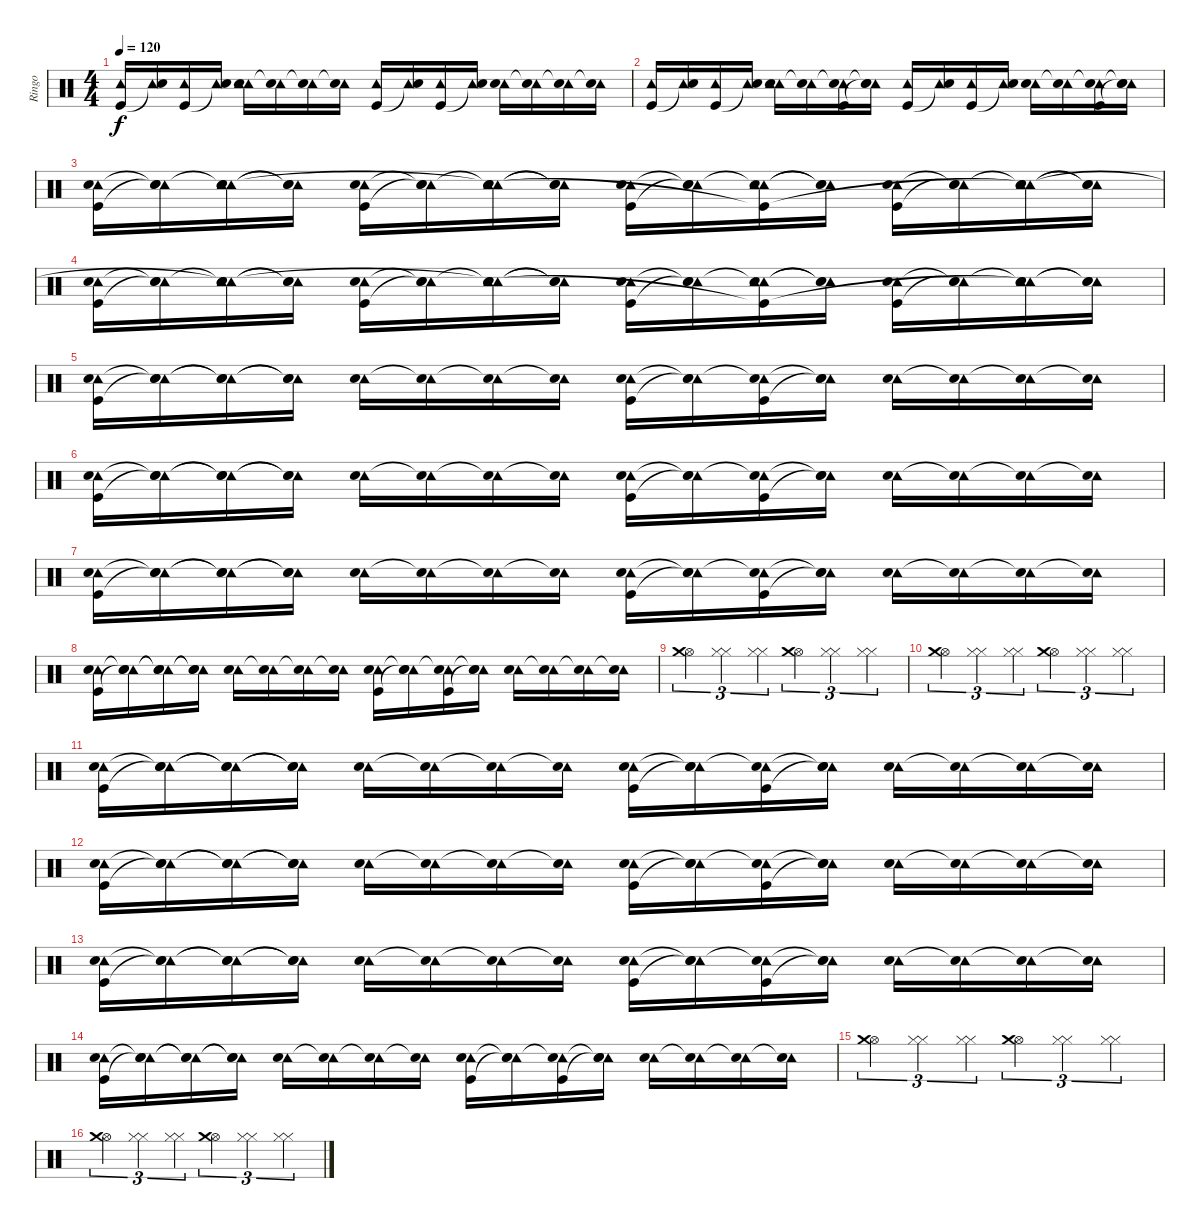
\track ("Ringo" "Ringo") {instrument percussion}
\staff {score}
\articulation defaults
\ts (4 4)
\tempo 120
\clef neutral
\ks c
("Tambourine (hit)" "Kick (hit)").16{dy f} ("Tambourine (hit)" "Snare (hit)"{t}).16 ("Tambourine (hit)" "Kick (hit)").16 ("Tambourine (hit)" "Snare (hit)"{t}).16 ("Tambourine (hit)" "Tambourine (hit)" "Snare (hit) 2").16 ("Tambourine (hit)" "Snare (hit)"{t}).16 ("Tambourine (hit)" "Snare (hit)"{t}).16 ("Tambourine (hit)" "Snare (hit)"{t}).16 ("Tambourine (hit)" "Kick (hit)").16 ("Tambourine (hit)" "Snare (hit)"{t}).16 ("Tambourine (hit)" "Kick (hit)").16 ("Tambourine (hit)" "Snare (hit)"{t}).16 ("Tambourine (hit)" "Snare (hit) 2").16 ("Tambourine (hit)" "Snare (hit)"{t}).16 ("Tambourine (hit)" "Snare (hit)"{t}).16 ("Tambourine (hit)" "Snare (hit)"{t}).16 |
("Tambourine (hit)" "Kick (hit)").16 ("Tambourine (hit)" "Snare (hit)"{t}).16 ("Tambourine (hit)" "Kick (hit)").16 ("Tambourine (hit)" "Snare (hit)"{t}).16 ("Tambourine (hit)" "Tambourine (hit)" "Snare (hit) 2").16 ("Tambourine (hit)" "Snare (hit)"{t}).16 ("Tambourine (hit)" "Snare (hit)"{t} "Kick (hit)").16 ("Tambourine (hit)" "Snare (hit)"{t} "Snare (hit)"{t}).16 ("Tambourine (hit)" "Kick (hit)").16 ("Tambourine (hit)" "Snare (hit)"{t}).16 ("Tambourine (hit)" "Kick (hit)").16 ("Tambourine (hit)" "Snare (hit)"{t}).16 ("Tambourine (hit)" "Snare (hit) 2").16 ("Tambourine (hit)" "Snare (hit)"{t}).16 ("Tambourine (hit)" "Snare (hit)"{t} "Kick (hit)").16 ("Tambourine (hit)" "Snare (hit)"{t} "Snare (hit)"{t}).16 |
("Tambourine (hit)" "Snare (hit) 2" "Kick (hit)").16 ("Tambourine (hit)" "Snare (hit)"{t} "Snare (hit)"{t}).16 ("Tambourine (hit)" "Tambourine (hit)" "Snare (hit)"{t} "Snare (hit)").16 ("Tambourine (hit)" "Snare (hit)"{t} "Snare (hit)"{t}).16 ("Tambourine (hit)" "Snare (hit) 2" "Kick (hit)").16 ("Tambourine (hit)" "Snare (hit)"{t} "Snare (hit)"{t}).16 ("Tambourine (hit)" "Tambourine (hit)" "Snare (hit)"{t} "Snare (hit)"{t}).16 ("Tambourine (hit)" "Snare (hit)"{t} "Snare (hit)"{t}).16 ("Tambourine (hit)" "Snare (hit) 2" "Kick (hit)").16 ("Tambourine (hit)" "Snare (hit)"{t} "Snare (hit)"{t}).16 ("Tambourine (hit)" "Tambourine (hit)" "Snare (hit)"{t} "Kick (hit)"{t}).16 ("Tambourine (hit)" "Snare (hit)"{t} "Snare (hit)"{t}).16 ("Tambourine (hit)" "Snare (hit) 2" "Kick (hit)").16 ("Tambourine (hit)" "Snare (hit)"{t} "Snare (hit)"{t}).16 ("Tambourine (hit)" "Tambourine (hit)" "Snare (hit)"{t} "Snare (hit)"{t}).16 ("Tambourine (hit)" "Snare (hit)"{t} "Snare (hit)"{t}).16 |
("Tambourine (hit)" "Snare (hit) 2" "Kick (hit)").16 ("Tambourine (hit)" "Snare (hit)"{t} "Snare (hit)"{t}).16 ("Tambourine (hit)" "Tambourine (hit)" "Snare (hit)"{t} "Snare (hit)"{t}).16 ("Tambourine (hit)" "Snare (hit)"{t} "Snare (hit)"{t}).16 ("Tambourine (hit)" "Snare (hit) 2" "Kick (hit)").16 ("Tambourine (hit)" "Snare (hit)"{t} "Snare (hit)"{t}).16 ("Tambourine (hit)" "Tambourine (hit)" "Snare (hit)"{t} "Snare (hit)"{t}).16 ("Tambourine (hit)" "Snare (hit)"{t} "Snare (hit)"{t}).16 ("Tambourine (hit)" "Snare (hit) 2" "Kick (hit)").16 ("Tambourine (hit)" "Snare (hit)"{t} "Snare (hit)"{t}).16 ("Tambourine (hit)" "Tambourine (hit)" "Snare (hit)"{t} "Kick (hit)"{t}).16 ("Tambourine (hit)" "Snare (hit)"{t} "Snare (hit)"{t}).16 ("Tambourine (hit)" "Snare (hit) 2" "Kick (hit)").16 ("Tambourine (hit)" "Snare (hit)"{t} "Snare (hit)"{t}).16 ("Tambourine (hit)" "Tambourine (hit)" "Snare (hit)"{t} "Snare (hit)"{t}).16 ("Tambourine (hit)" "Snare (hit)"{t} "Snare (hit)"{t}).16 |
("Tambourine (hit)" "Snare (hit) 2" "Kick (hit)").16 ("Tambourine (hit)" "Snare (hit)"{t} "Snare (hit)"{t}).16 ("Tambourine (hit)" "Snare (hit)"{t} "Snare (hit)"{t}).16 ("Tambourine (hit)" "Snare (hit)"{t} "Snare (hit)"{t}).16 ("Tambourine (hit)" "Snare (hit) 2").16 ("Tambourine (hit)" "Snare (hit)"{t}).16 ("Tambourine (hit)" "Snare (hit)"{t}).16 ("Tambourine (hit)" "Snare (hit)"{t}).16 ("Tambourine (hit)" "Snare (hit) 2" "Kick (hit)").16 ("Tambourine (hit)" "Snare (hit)"{t} "Snare (hit)"{t}).16 ("Tambourine (hit)" "Snare (hit)"{t} "Kick (hit)").16 ("Tambourine (hit)" "Snare (hit)"{t} "Snare (hit)"{t}).16 ("Tambourine (hit)" "Snare (hit) 2").16 ("Tambourine (hit)" "Snare (hit)"{t}).16 ("Tambourine (hit)" "Snare (hit)"{t}).16 ("Tambourine (hit)" "Snare (hit)"{t}).16 |
("Tambourine (hit)" "Snare (hit) 2" "Kick (hit)").16 ("Tambourine (hit)" "Snare (hit)"{t} "Snare (hit)"{t}).16 ("Tambourine (hit)" "Snare (hit)"{t} "Snare (hit)"{t}).16 ("Tambourine (hit)" "Snare (hit)"{t} "Snare (hit)"{t}).16 ("Tambourine (hit)" "Snare (hit) 2").16 ("Tambourine (hit)" "Snare (hit)"{t}).16 ("Tambourine (hit)" "Snare (hit)"{t}).16 ("Tambourine (hit)" "Snare (hit)"{t}).16 ("Tambourine (hit)" "Snare (hit) 2" "Kick (hit)").16 ("Tambourine (hit)" "Snare (hit)"{t} "Snare (hit)"{t}).16 ("Tambourine (hit)" "Snare (hit)"{t} "Kick (hit)").16 ("Tambourine (hit)" "Snare (hit)"{t} "Snare (hit)"{t}).16 ("Tambourine (hit)" "Snare (hit) 2").16 ("Tambourine (hit)" "Snare (hit)"{t}).16 ("Tambourine (hit)" "Snare (hit)"{t}).16 ("Tambourine (hit)" "Snare (hit)"{t}).16 |
("Tambourine (hit)" "Snare (hit) 2" "Kick (hit)").16 ("Tambourine (hit)" "Snare (hit)"{t} "Snare (hit)"{t}).16 ("Tambourine (hit)" "Snare (hit)"{t} "Snare (hit)"{t}).16 ("Tambourine (hit)" "Snare (hit)"{t} "Snare (hit)"{t}).16 ("Tambourine (hit)" "Snare (hit) 2").16 ("Tambourine (hit)" "Snare (hit)"{t}).16 ("Tambourine (hit)" "Snare (hit)"{t}).16 ("Tambourine (hit)" "Snare (hit)"{t}).16 ("Tambourine (hit)" "Snare (hit) 2" "Kick (hit)").16 ("Tambourine (hit)" "Snare (hit)"{t} "Snare (hit)"{t}).16 ("Tambourine (hit)" "Snare (hit)"{t} "Kick (hit)").16 ("Tambourine (hit)" "Snare (hit)"{t} "Snare (hit)"{t}).16 ("Tambourine (hit)" "Snare (hit) 2").16 ("Tambourine (hit)" "Snare (hit)"{t}).16 ("Tambourine (hit)" "Snare (hit)"{t}).16 ("Tambourine (hit)" "Snare (hit)"{t}).16 |
("Tambourine (hit)" "Snare (hit) 2" "Kick (hit)").16 ("Tambourine (hit)" "Snare (hit)"{t} "Snare (hit)"{t}).16 ("Tambourine (hit)" "Snare (hit)"{t} "Snare (hit)"{t}).16 ("Tambourine (hit)" "Snare (hit)"{t} "Snare (hit)"{t}).16 ("Tambourine (hit)" "Snare (hit) 2").16 ("Tambourine (hit)" "Snare (hit)"{t}).16 ("Tambourine (hit)" "Snare (hit)"{t}).16 ("Tambourine (hit)" "Snare (hit)"{t}).16 ("Tambourine (hit)" "Snare (hit) 2" "Kick (hit)").16 ("Tambourine (hit)" "Snare (hit)"{t} "Snare (hit)"{t}).16 ("Tambourine (hit)" "Snare (hit)"{t} "Kick (hit)").16 ("Tambourine (hit)" "Snare (hit)"{t} "Snare (hit)"{t}).16 ("Tambourine (hit)" "Snare (hit) 2").16 ("Tambourine (hit)" "Snare (hit)"{t}).16 ("Tambourine (hit)" "Snare (hit)"{t}).16 ("Tambourine (hit)" "Snare (hit)"{t}).16 |
("Hi-Hat (open)" "Crash medium (hit)").4{tu (3 2)} ("Hi-Hat (closed)" "Hi-Hat (closed)").4{tu (3 2)} ("Hi-Hat (closed)" "Hi-Hat (closed)").4{tu (3 2)} ("Hi-Hat (open)" "Crash medium (hit)").4{tu (3 2)} ("Hi-Hat (closed)" "Hi-Hat (closed)").4{tu (3 2)} ("Hi-Hat (closed)" "Hi-Hat (closed)").4{tu (3 2)} |
("Hi-Hat (open)" "Crash medium (hit)").4{tu (3 2)} ("Hi-Hat (closed)" "Hi-Hat (closed)").4{tu (3 2)} ("Hi-Hat (closed)" "Hi-Hat (closed)").4{tu (3 2)} ("Hi-Hat (open)" "Crash medium (hit)").4{tu (3 2)} ("Hi-Hat (closed)" "Hi-Hat (closed)").4{tu (3 2)} ("Hi-Hat (closed)" "Hi-Hat (closed)").4{tu (3 2)} |
("Tambourine (hit)" "Snare (hit) 2" "Kick (hit)").16 ("Tambourine (hit)" "Snare (hit)"{t} "Snare (hit)"{t}).16 ("Tambourine (hit)" "Snare (hit)"{t} "Snare (hit)"{t}).16 ("Tambourine (hit)" "Snare (hit)"{t} "Snare (hit)"{t}).16 ("Tambourine (hit)" "Snare (hit) 2").16 ("Tambourine (hit)" "Snare (hit)"{t}).16 ("Tambourine (hit)" "Snare (hit)"{t}).16 ("Tambourine (hit)" "Snare (hit)"{t}).16 ("Tambourine (hit)" "Snare (hit) 2" "Kick (hit)").16 ("Tambourine (hit)" "Snare (hit)"{t} "Snare (hit)"{t}).16 ("Tambourine (hit)" "Snare (hit)"{t} "Kick (hit)").16 ("Tambourine (hit)" "Snare (hit)"{t} "Snare (hit)"{t}).16 ("Tambourine (hit)" "Snare (hit) 2").16 ("Tambourine (hit)" "Snare (hit)"{t}).16 ("Tambourine (hit)" "Snare (hit)"{t}).16 ("Tambourine (hit)" "Snare (hit)"{t}).16 |
("Tambourine (hit)" "Snare (hit) 2" "Kick (hit)").16 ("Tambourine (hit)" "Snare (hit)"{t} "Snare (hit)"{t}).16 ("Tambourine (hit)" "Snare (hit)"{t} "Snare (hit)"{t}).16 ("Tambourine (hit)" "Snare (hit)"{t} "Snare (hit)"{t}).16 ("Tambourine (hit)" "Snare (hit) 2").16 ("Tambourine (hit)" "Snare (hit)"{t}).16 ("Tambourine (hit)" "Snare (hit)"{t}).16 ("Tambourine (hit)" "Snare (hit)"{t}).16 ("Tambourine (hit)" "Snare (hit) 2" "Kick (hit)").16 ("Tambourine (hit)" "Snare (hit)"{t} "Snare (hit)"{t}).16 ("Tambourine (hit)" "Snare (hit)"{t} "Kick (hit)").16 ("Tambourine (hit)" "Snare (hit)"{t} "Snare (hit)"{t}).16 ("Tambourine (hit)" "Snare (hit) 2").16 ("Tambourine (hit)" "Snare (hit)"{t}).16 ("Tambourine (hit)" "Snare (hit)"{t}).16 ("Tambourine (hit)" "Snare (hit)"{t}).16 |
("Tambourine (hit)" "Snare (hit) 2" "Kick (hit)").16 ("Tambourine (hit)" "Snare (hit)"{t} "Snare (hit)"{t}).16 ("Tambourine (hit)" "Snare (hit)"{t} "Snare (hit)"{t}).16 ("Tambourine (hit)" "Snare (hit)"{t} "Snare (hit)"{t}).16 ("Tambourine (hit)" "Snare (hit) 2").16 ("Tambourine (hit)" "Snare (hit)"{t}).16 ("Tambourine (hit)" "Snare (hit)"{t}).16 ("Tambourine (hit)" "Snare (hit)"{t}).16 ("Tambourine (hit)" "Snare (hit) 2" "Kick (hit)").16 ("Tambourine (hit)" "Snare (hit)"{t} "Snare (hit)"{t}).16 ("Tambourine (hit)" "Snare (hit)"{t} "Kick (hit)").16 ("Tambourine (hit)" "Snare (hit)"{t} "Snare (hit)"{t}).16 ("Tambourine (hit)" "Snare (hit) 2").16 ("Tambourine (hit)" "Snare (hit)"{t}).16 ("Tambourine (hit)" "Snare (hit)"{t}).16 ("Tambourine (hit)" "Snare (hit)"{t}).16 |
("Tambourine (hit)" "Snare (hit) 2" "Kick (hit)").16 ("Tambourine (hit)" "Snare (hit)"{t} "Snare (hit)"{t}).16 ("Tambourine (hit)" "Snare (hit)"{t} "Snare (hit)"{t}).16 ("Tambourine (hit)" "Snare (hit)"{t} "Snare (hit)"{t}).16 ("Tambourine (hit)" "Snare (hit) 2").16 ("Tambourine (hit)" "Snare (hit)"{t}).16 ("Tambourine (hit)" "Snare (hit)"{t}).16 ("Tambourine (hit)" "Snare (hit)"{t}).16 ("Tambourine (hit)" "Snare (hit) 2" "Kick (hit)").16 ("Tambourine (hit)" "Snare (hit)"{t} "Snare (hit)"{t}).16 ("Tambourine (hit)" "Snare (hit)"{t} "Kick (hit)").16 ("Tambourine (hit)" "Snare (hit)"{t} "Snare (hit)"{t}).16 ("Tambourine (hit)" "Snare (hit) 2").16 ("Tambourine (hit)" "Snare (hit)"{t}).16 ("Tambourine (hit)" "Snare (hit)"{t}).16 ("Tambourine (hit)" "Snare (hit)"{t}).16 |
("Hi-Hat (open)" "Crash medium (hit)").4{tu (3 2)} ("Hi-Hat (closed)" "Hi-Hat (closed)").4{tu (3 2)} ("Hi-Hat (closed)" "Hi-Hat (closed)").4{tu (3 2)} ("Hi-Hat (open)" "Crash medium (hit)").4{tu (3 2)} ("Hi-Hat (closed)" "Hi-Hat (closed)").4{tu (3 2)} ("Hi-Hat (closed)" "Hi-Hat (closed)").4{tu (3 2)} |
("Hi-Hat (open)" "Crash medium (hit)").4{tu (3 2)} ("Hi-Hat (closed)" "Hi-Hat (closed)").4{tu (3 2)} ("Hi-Hat (closed)" "Hi-Hat (closed)").4{tu (3 2)} ("Hi-Hat (open)" "Crash medium (hit)").4{tu (3 2)} ("Hi-Hat (closed)" "Hi-Hat (closed)").4{tu (3 2)} ("Hi-Hat (closed)" "Hi-Hat (closed)").4{tu (3 2)}
